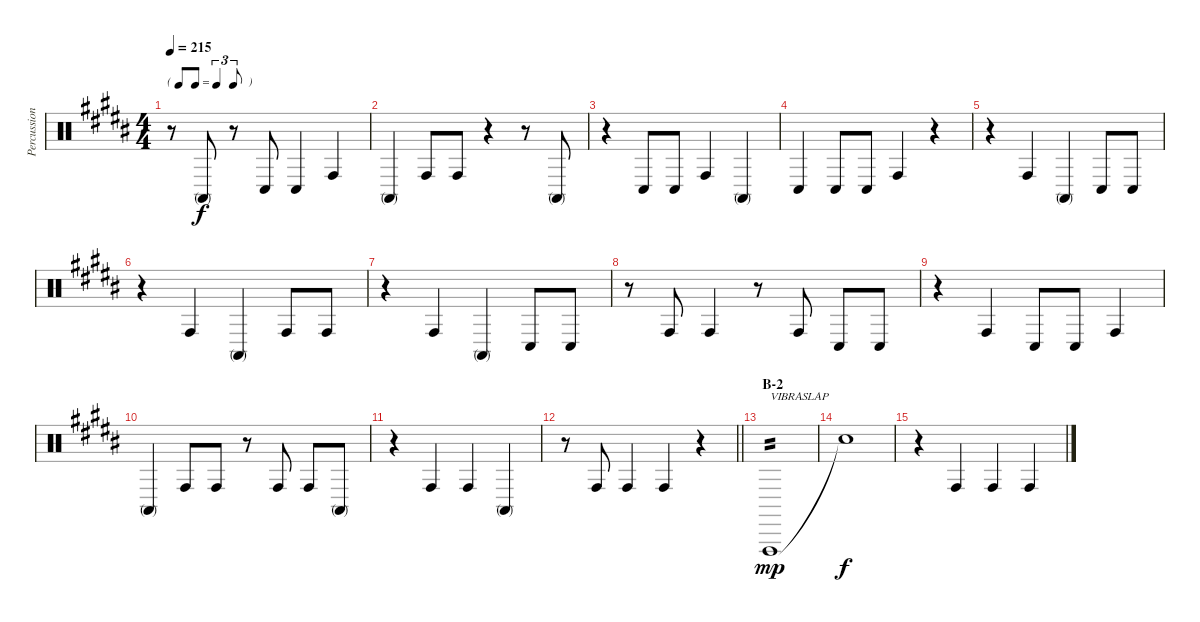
\track ("Percussion A (Tainaka Ritsu)" "Percussion") {instrument percussion}
\staff {score}
\articulation defaults
\ts (4 4)
\tf triplet8th
\tempo 215
\clef neutral
\ks b
r.8{dy f} "Conga high (mute)".8 r.8 "Conga low (hit)".8 "Conga low (hit)".4 "Conga high (hit)".4 |
"Conga high (mute)".4 "Conga high (hit)".8 "Conga high (hit)".8 r.4 r.8 "Conga high (mute)".8 |
r.4 "Conga low (hit)".8 "Conga low (hit)".8 "Conga high (hit)".4 "Conga high (mute)".4 |
"Conga low (hit)".4 "Conga low (hit)".8 "Conga low (hit)".8 "Conga high (hit)".4 r.4 |
r.4 "Conga high (hit)".4 "Conga high (mute)".4 "Conga low (hit)".8 "Conga low (hit)".8 |
r.4 "Conga high (hit)".4 "Conga high (mute)".4 "Conga high (hit)".8 "Conga high (hit)".8 |
r.4 "Conga high (hit)".4 "Conga high (mute)".4 "Conga low (hit)".8 "Conga low (hit)".8 |
r.8 "Conga high (hit)".8 "Conga high (hit)".4 r.8 "Conga high (hit)".8 "Conga low (hit)".8 "Conga low (hit)".8 |
r.4 "Conga high (hit)".4 "Conga low (hit)".8 "Conga low (hit)".8 "Conga high (hit)".4 |
"Conga high (mute)".4 "Conga high (hit)".8 "Conga high (hit)".8 r.8 "Conga high (hit)".8 "Conga high (hit)".8 "Conga high (mute)".8 |
r.4 "Conga high (hit)".4 "Conga high (hit)".4 "Conga high (mute)".4 |
\barLineRight lightlight
r.8 "Conga high (hit)".8 "Conga high (hit)".4 "Conga high (hit)".4 r.4 |
\section ("" "B-2")
"Vibraslap (hit)".1{txt "VIBRASLAP" tp 2 dy mp} |
"Snare (hit)"{t}.1{dy f} |
r.4 "Conga high (hit)".4 "Conga high (hit)".4 "Conga high (hit)".4
